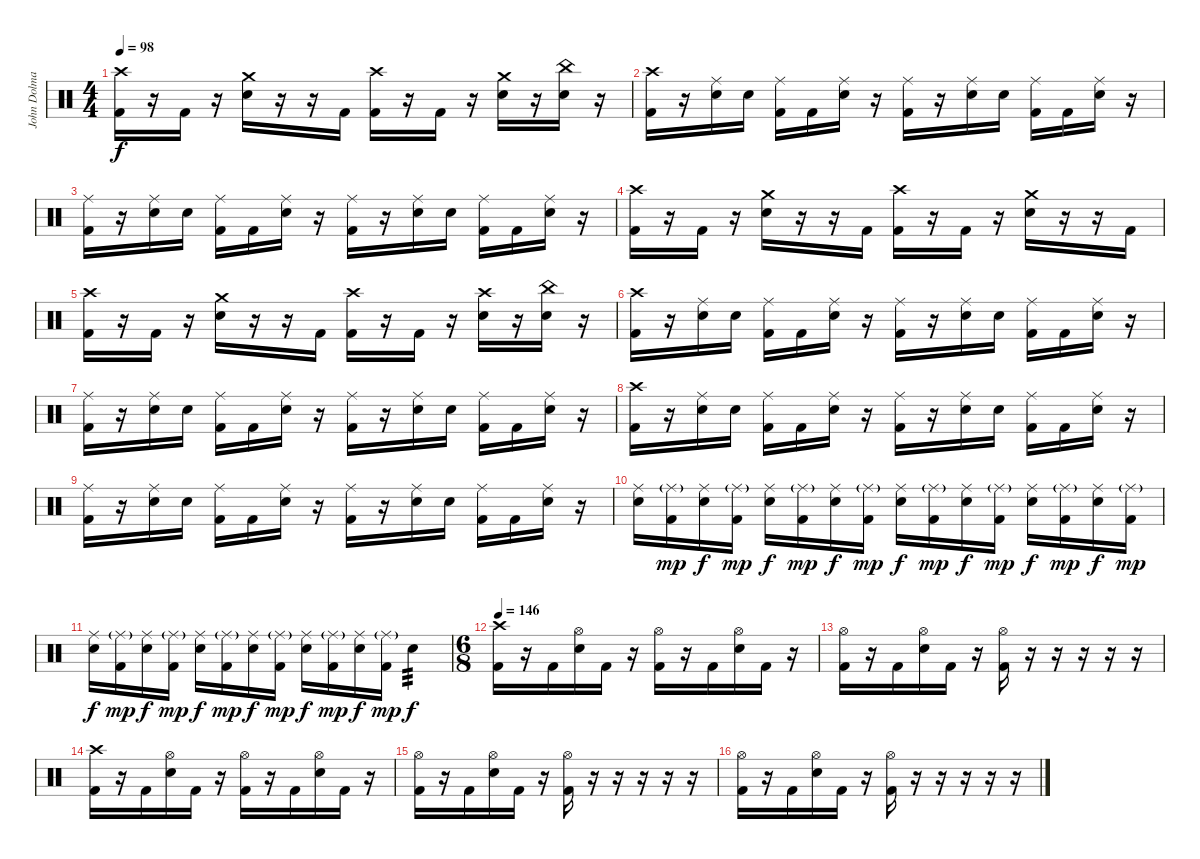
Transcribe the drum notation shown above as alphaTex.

\track ("John Dolmayan" "John Dolma") {instrument percussion}
\staff {score}
\articulation defaults
\ts (4 4)
\tempo 98
\clef neutral
\ks c
("Crash high (hit)" "Kick (hit) 2").16{dy f} r.16 "Kick (hit) 2".16 r.16 ("Crash medium (hit)" "Electric Snare (hit)").16 r.16 r.16 "Kick (hit) 2".16 ("Crash high (hit)" "Kick (hit) 2").16 r.16 "Kick (hit) 2".16 r.16 ("Crash medium (hit)" "Electric Snare (hit)").16 r.16 ("China (hit)" "Electric Snare (hit)").16 r.16 |
("Crash high (hit)" "Kick (hit) 2").16 r.16 ("Ride (middle)" "Electric Snare (hit)").16 "Electric Snare (hit)".16 ("Ride (middle)" "Kick (hit) 2").16 "Kick (hit) 2".16 ("Ride (middle)" "Electric Snare (hit)").16 r.16 ("Ride (middle)" "Kick (hit) 2").16 r.16 ("Ride (middle)" "Electric Snare (hit)").16 "Electric Snare (hit)".16 ("Ride (middle)" "Kick (hit) 2").16 "Kick (hit) 2".16 ("Ride (middle)" "Electric Snare (hit)").16 r.16 |
("Ride (middle)" "Kick (hit) 2").16 r.16 ("Ride (middle)" "Electric Snare (hit)").16 "Electric Snare (hit)".16 ("Ride (middle)" "Kick (hit) 2").16 "Kick (hit) 2".16 ("Ride (middle)" "Electric Snare (hit)").16 r.16 ("Ride (middle)" "Kick (hit) 2").16 r.16 ("Ride (middle)" "Electric Snare (hit)").16 "Electric Snare (hit)".16 ("Ride (middle)" "Kick (hit) 2").16 "Kick (hit) 2".16 ("Ride (middle)" "Electric Snare (hit)").16 r.16 |
("Crash high (hit)" "Kick (hit) 2").16 r.16 "Kick (hit) 2".16 r.16 ("Crash medium (hit)" "Electric Snare (hit)").16 r.16 r.16 "Kick (hit) 2".16 ("Crash high (hit)" "Kick (hit) 2").16 r.16 "Kick (hit) 2".16 r.16 ("Crash medium (hit)" "Electric Snare (hit)").16 r.16 r.16 "Kick (hit) 2".16 |
("Crash high (hit)" "Kick (hit) 2").16 r.16 "Kick (hit) 2".16 r.16 ("Crash medium (hit)" "Electric Snare (hit)").16 r.16 r.16 "Kick (hit) 2".16 ("Crash high (hit)" "Kick (hit) 2").16 r.16 "Kick (hit) 2".16 r.16 ("Crash high (hit)" "Electric Snare (hit)").16 r.16 ("China (hit)" "Electric Snare (hit)").16 r.16 |
("Crash high (hit)" "Kick (hit) 2").16 r.16 ("Ride (middle)" "Electric Snare (hit)").16 "Electric Snare (hit)".16 ("Ride (middle)" "Kick (hit) 2").16 "Kick (hit) 2".16 ("Ride (middle)" "Electric Snare (hit)").16 r.16 ("Ride (middle)" "Kick (hit) 2").16 r.16 ("Ride (middle)" "Electric Snare (hit)").16 "Electric Snare (hit)".16 ("Ride (middle)" "Kick (hit) 2").16 "Kick (hit) 2".16 ("Ride (middle)" "Electric Snare (hit)").16 r.16 |
("Ride (middle)" "Kick (hit) 2").16 r.16 ("Ride (middle)" "Electric Snare (hit)").16 "Electric Snare (hit)".16 ("Ride (middle)" "Kick (hit) 2").16 "Kick (hit) 2".16 ("Ride (middle)" "Electric Snare (hit)").16 r.16 ("Ride (middle)" "Kick (hit) 2").16 r.16 ("Ride (middle)" "Electric Snare (hit)").16 "Electric Snare (hit)".16 ("Ride (middle)" "Kick (hit) 2").16 "Kick (hit) 2".16 ("Ride (middle)" "Electric Snare (hit)").16 r.16 |
("Crash high (hit)" "Kick (hit) 2").16 r.16 ("Ride (middle)" "Electric Snare (hit)").16 "Electric Snare (hit)".16 ("Ride (middle)" "Kick (hit) 2").16 "Kick (hit) 2".16 ("Ride (middle)" "Electric Snare (hit)").16 r.16 ("Ride (middle)" "Kick (hit) 2").16 r.16 ("Ride (middle)" "Electric Snare (hit)").16 "Electric Snare (hit)".16 ("Ride (middle)" "Kick (hit) 2").16 "Kick (hit) 2".16 ("Ride (middle)" "Electric Snare (hit)").16 r.16 |
("Ride (middle)" "Kick (hit) 2").16 r.16 ("Ride (middle)" "Electric Snare (hit)").16 "Electric Snare (hit)".16 ("Ride (middle)" "Kick (hit) 2").16 "Kick (hit) 2".16 ("Ride (middle)" "Electric Snare (hit)").16 r.16 ("Ride (middle)" "Kick (hit) 2").16 r.16 ("Ride (middle)" "Electric Snare (hit)").16 "Electric Snare (hit)".16 ("Ride (middle)" "Kick (hit) 2").16 "Kick (hit) 2".16 ("Ride (middle)" "Electric Snare (hit)").16 r.16 |
("Ride (middle)" "Electric Snare (hit)").16 ("Ride (middle)"{g} "Kick (hit) 2").16{dy mp} ("Ride (middle)" "Electric Snare (hit)").16{dy f} ("Ride (middle)"{g} "Kick (hit) 2").16{dy mp} ("Ride (middle)" "Electric Snare (hit)").16{dy f} ("Ride (middle)"{g} "Kick (hit) 2").16{dy mp} ("Ride (middle)" "Electric Snare (hit)").16{dy f} ("Ride (middle)"{g} "Kick (hit) 2").16{dy mp} ("Ride (middle)" "Electric Snare (hit)").16{dy f} ("Ride (middle)"{g} "Kick (hit) 2").16{dy mp} ("Ride (middle)" "Electric Snare (hit)").16{dy f} ("Ride (middle)"{g} "Kick (hit) 2").16{dy mp} ("Ride (middle)" "Electric Snare (hit)").16{dy f} ("Ride (middle)"{g} "Kick (hit) 2").16{dy mp} ("Ride (middle)" "Electric Snare (hit)").16{dy f} ("Ride (middle)"{g} "Kick (hit) 2").16{dy mp} |
("Ride (middle)" "Electric Snare (hit)").16{dy f} ("Ride (middle)"{g} "Kick (hit) 2").16{dy mp} ("Ride (middle)" "Electric Snare (hit)").16{dy f} ("Ride (middle)"{g} "Kick (hit) 2").16{dy mp} ("Ride (middle)" "Electric Snare (hit)").16{dy f} ("Ride (middle)"{g} "Kick (hit) 2").16{dy mp} ("Ride (middle)" "Electric Snare (hit)").16{dy f} ("Ride (middle)"{g} "Kick (hit) 2").16{dy mp} ("Ride (middle)" "Electric Snare (hit)").16{dy f} ("Ride (middle)"{g} "Kick (hit) 2").16{dy mp} ("Ride (middle)" "Electric Snare (hit)").16{dy f} ("Ride (middle)"{g} "Kick (hit) 2").16{dy mp} "Electric Snare (hit)".4{tp 3 dy f} |
\ts (6 8)
\tempo 146
("Crash high (hit)" "Kick (hit) 2").16 r.16 "Kick (hit) 2".16 ("Hi-Hat (open)" "Electric Snare (hit)").16 "Kick (hit) 2".16 r.16 ("Hi-Hat (open)" "Kick (hit) 2").16 r.16 "Kick (hit) 2".16 ("Hi-Hat (open)" "Electric Snare (hit)").16 "Kick (hit) 2".16 r.16 |
("Hi-Hat (open)" "Kick (hit) 2").16 r.16 "Kick (hit) 2".16 ("Hi-Hat (open)" "Electric Snare (hit)").16 "Kick (hit) 2".16 r.16 ("Hi-Hat (open)" "Kick (hit) 2").16 r.16{volume 0} r.16 r.16 r.16 r.16 |
("Crash high (hit)" "Kick (hit) 2").16{volume 16} r.16 "Kick (hit) 2".16 ("Hi-Hat (open)" "Electric Snare (hit)").16 "Kick (hit) 2".16 r.16 ("Hi-Hat (open)" "Kick (hit) 2").16 r.16 "Kick (hit) 2".16 ("Hi-Hat (open)" "Electric Snare (hit)").16 "Kick (hit) 2".16 r.16 |
("Hi-Hat (open)" "Kick (hit) 2").16 r.16 "Kick (hit) 2".16 ("Hi-Hat (open)" "Electric Snare (hit)").16 "Kick (hit) 2".16 r.16 ("Hi-Hat (open)" "Kick (hit) 2").16 r.16{volume 0} r.16 r.16 r.16 r.16 |
("Hi-Hat (open)" "Kick (hit) 2").16{volume 16} r.16 "Kick (hit) 2".16 ("Hi-Hat (open)" "Electric Snare (hit)").16 "Kick (hit) 2".16 r.16 ("Hi-Hat (open)" "Kick (hit) 2").16 r.16{volume 0} r.16 r.16 r.16 r.16
